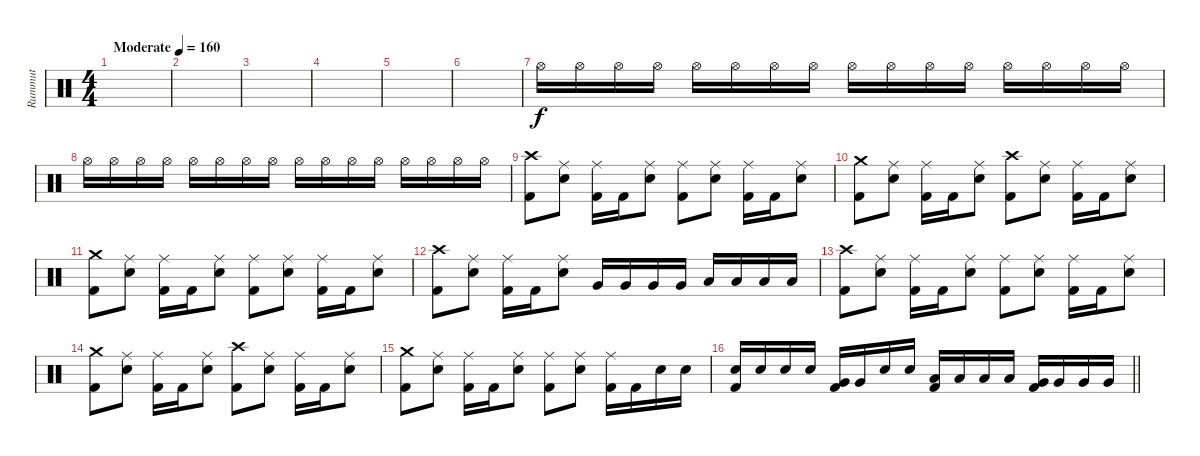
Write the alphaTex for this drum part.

\track ("Rummut" "Rummut") {instrument percussion}
\staff {score}
\articulation defaults
\ts (4 4)
\tempo (160 "Moderate")
\clef neutral
\ks c
|
|
|
|
|
|
"Hi-Hat (open)".16{volume 3} "Hi-Hat (open)".16{volume 13} "Hi-Hat (open)".16 "Hi-Hat (open)".16 "Hi-Hat (open)".16 "Hi-Hat (open)".16 "Hi-Hat (open)".16 "Hi-Hat (open)".16 "Hi-Hat (open)".16 "Hi-Hat (open)".16 "Hi-Hat (open)".16 "Hi-Hat (open)".16 "Hi-Hat (open)".16 "Hi-Hat (open)".16 "Hi-Hat (open)".16 "Hi-Hat (open)".16 |
"Hi-Hat (open)".16 "Hi-Hat (open)".16 "Hi-Hat (open)".16 "Hi-Hat (open)".16 "Hi-Hat (open)".16 "Hi-Hat (open)".16 "Hi-Hat (open)".16 "Hi-Hat (open)".16 "Hi-Hat (open)".16 "Hi-Hat (open)".16 "Hi-Hat (open)".16 "Hi-Hat (open)".16 "Hi-Hat (open)".16 "Hi-Hat (open)".16 "Hi-Hat (open)".16 "Hi-Hat (open)".16 |
("Crash high (hit)" "Kick (hit) 2").8 ("Ride (middle)" "Snare (hit) 2").8 ("Ride (middle)" "Kick (hit) 2").16 "Kick (hit) 2".16 ("Ride (middle)" "Snare (hit) 2").8 ("Ride (middle)" "Kick (hit) 2").8 ("Ride (middle)" "Snare (hit) 2").8 ("Ride (middle)" "Kick (hit) 2").16 "Kick (hit) 2".16 ("Ride (middle)" "Snare (hit) 2").8 |
("Crash medium (hit)" "Kick (hit) 2").8 ("Ride (middle)" "Snare (hit) 2").8 ("Ride (middle)" "Kick (hit) 2").16 "Kick (hit) 2".16 ("Ride (middle)" "Snare (hit) 2").8 ("Crash high (hit)" "Kick (hit) 2").8 ("Ride (middle)" "Snare (hit) 2").8 ("Ride (middle)" "Kick (hit) 2").16 "Kick (hit) 2".16 ("Ride (middle)" "Snare (hit) 2").8 |
("Crash medium (hit)" "Kick (hit) 2").8 ("Ride (middle)" "Snare (hit) 2").8 ("Ride (middle)" "Kick (hit) 2").16 "Kick (hit) 2".16 ("Ride (middle)" "Snare (hit) 2").8 ("Ride (middle)" "Kick (hit) 2").8 ("Ride (middle)" "Snare (hit) 2").8 ("Ride (middle)" "Kick (hit) 2").16 "Kick (hit) 2".16 ("Ride (middle)" "Snare (hit) 2").8 |
("Crash high (hit)" "Kick (hit) 2").8 ("Ride (middle)" "Snare (hit) 2").8 ("Ride (middle)" "Kick (hit) 2").16 "Kick (hit) 2".16 ("Ride (middle)" "Snare (hit) 2").8 "Very Low Tom (hit)".16 "Very Low Tom (hit)".16 "Very Low Tom (hit)".16 "Very Low Tom (hit)".16 "Low Floor Tom (hit)".16 "Low Floor Tom (hit)".16 "Low Floor Tom (hit)".16 "Low Floor Tom (hit)".16 |
("Crash high (hit)" "Kick (hit) 2").8 ("Ride (middle)" "Snare (hit) 2").8 ("Ride (middle)" "Kick (hit) 2").16 "Kick (hit) 2".16 ("Ride (middle)" "Snare (hit) 2").8 ("Ride (middle)" "Kick (hit) 2").8 ("Ride (middle)" "Snare (hit) 2").8 ("Ride (middle)" "Kick (hit) 2").16 "Kick (hit) 2".16 ("Ride (middle)" "Snare (hit) 2").8 |
("Crash medium (hit)" "Kick (hit) 2").8 ("Ride (middle)" "Snare (hit) 2").8 ("Ride (middle)" "Kick (hit) 2").16 "Kick (hit) 2".16 ("Ride (middle)" "Snare (hit) 2").8 ("Crash high (hit)" "Kick (hit) 2").8 ("Ride (middle)" "Snare (hit) 2").8 ("Ride (middle)" "Kick (hit) 2").16 "Kick (hit) 2".16 ("Ride (middle)" "Snare (hit) 2").8 |
("Crash medium (hit)" "Kick (hit) 2").8 ("Ride (middle)" "Snare (hit) 2").8 ("Ride (middle)" "Kick (hit) 2").16 "Kick (hit) 2".16 ("Ride (middle)" "Snare (hit) 2").8 ("Ride (middle)" "Kick (hit) 2").8 ("Ride (middle)" "Snare (hit) 2").8 ("Ride (middle)" "Kick (hit) 2").16 "Kick (hit) 2".16 "Snare (hit) 2".16 "Snare (hit) 2".16 |
\barLineRight lightlight
("Snare (hit) 2" "Kick (hit) 2").16 "Snare (hit) 2".16 "Snare (hit) 2".16 "Snare (hit) 2".16 ("Very Low Tom (hit)" "Kick (hit) 2").16 "Very Low Tom (hit)".16 "Snare (hit) 2".16 "Snare (hit) 2".16 ("Low Tom (hit)" "Kick (hit) 2").16 "Low Tom (hit)".16 "Low Tom (hit)".16 "Low Tom (hit)".16 ("Very Low Tom (hit)" "Kick (hit) 2").16 "Very Low Tom (hit)".16 "Very Low Tom (hit)".16 "Very Low Tom (hit)".16
